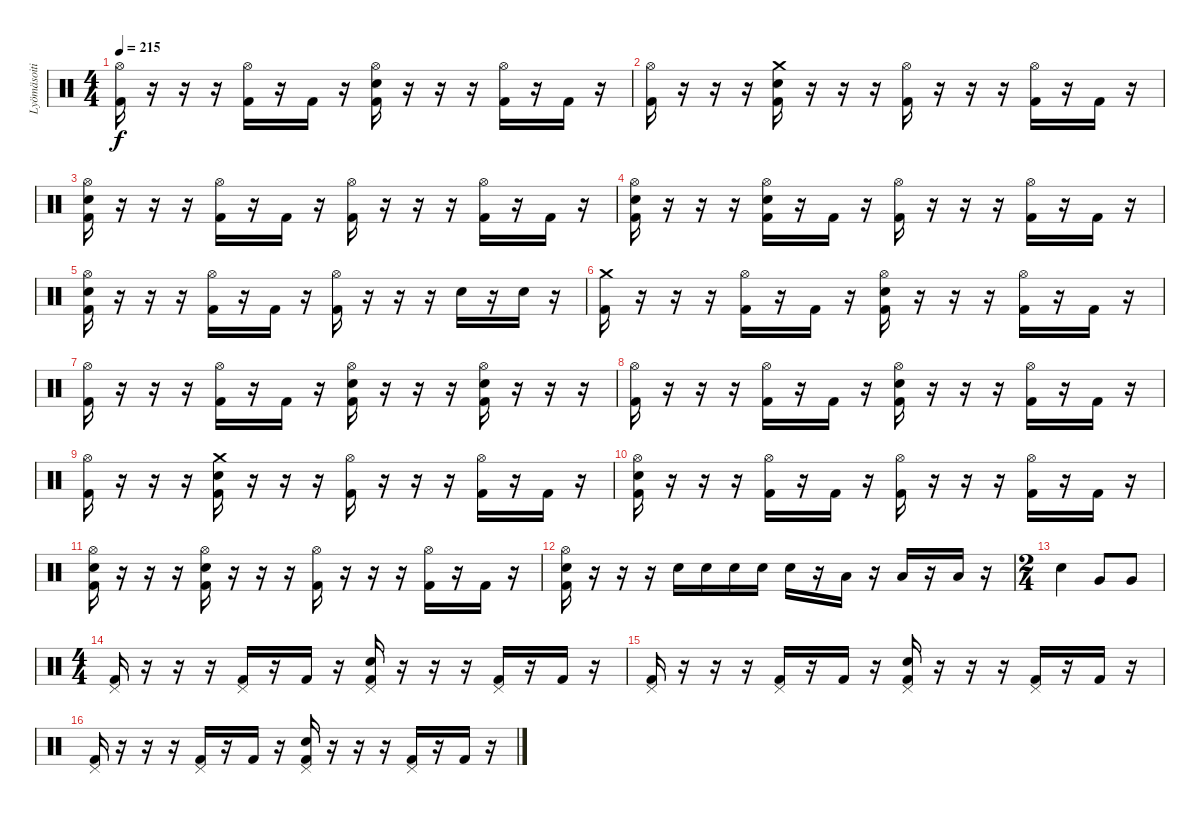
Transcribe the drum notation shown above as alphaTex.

\track ("Lyömäsoitin" "Lyömäsoiti") {instrument percussion}
\staff {score}
\articulation defaults
\ts (4 4)
\tempo 215
\clef neutral
\ks c
("Hi-Hat (open)" "Kick (hit) 2").16{dy f} r.16 r.16 r.16 ("Hi-Hat (open)" "Kick (hit) 2").16 r.16 "Kick (hit) 2".16 r.16 ("Electric Snare (hit)" "Hi-Hat (open)" "Kick (hit) 2").16 r.16 r.16 r.16 ("Hi-Hat (open)" "Kick (hit) 2").16 r.16 "Kick (hit) 2".16 r.16 |
("Hi-Hat (open)" "Kick (hit) 2").16 r.16 r.16 r.16 ("Electric Snare (hit)" "Crash medium (hit)" "Kick (hit) 2").16 r.16 r.16 r.16 ("Hi-Hat (open)" "Kick (hit) 2").16 r.16 r.16 r.16 ("Hi-Hat (open)" "Kick (hit) 2").16 r.16 "Kick (hit) 2".16 r.16 |
("Electric Snare (hit)" "Hi-Hat (open)" "Kick (hit) 2").16 r.16 r.16 r.16 ("Hi-Hat (open)" "Kick (hit) 2").16 r.16 "Kick (hit) 2".16 r.16 ("Hi-Hat (open)" "Kick (hit) 2").16 r.16 r.16 r.16 ("Hi-Hat (open)" "Kick (hit) 2").16 r.16 "Kick (hit) 2".16 r.16 |
("Electric Snare (hit)" "Hi-Hat (open)" "Kick (hit) 2").16 r.16 r.16 r.16 ("Electric Snare (hit)" "Hi-Hat (open)" "Kick (hit) 2").16 r.16 "Kick (hit) 2".16 r.16 ("Hi-Hat (open)" "Kick (hit) 2").16 r.16 r.16 r.16 ("Hi-Hat (open)" "Kick (hit) 2").16 r.16 "Kick (hit) 2".16 r.16 |
("Hi-Hat (open)" "Electric Snare (hit)" "Kick (hit) 2").16 r.16 r.16 r.16 ("Hi-Hat (open)" "Kick (hit) 2").16 r.16 "Kick (hit) 2".16 r.16 ("Hi-Hat (open)" "Kick (hit) 2").16 r.16 r.16 r.16 "Electric Snare (hit)".16 r.16 "Electric Snare (hit)".16 r.16 |
("Crash medium (hit)" "Kick (hit) 2").16 r.16 r.16 r.16 ("Hi-Hat (open)" "Kick (hit) 2").16 r.16 "Kick (hit) 2".16 r.16 ("Electric Snare (hit)" "Hi-Hat (open)" "Kick (hit) 2").16 r.16 r.16 r.16 ("Hi-Hat (open)" "Kick (hit) 2").16 r.16 "Kick (hit) 2".16 r.16 |
("Hi-Hat (open)" "Kick (hit) 2").16 r.16 r.16 r.16 ("Hi-Hat (open)" "Kick (hit) 2").16 r.16 "Kick (hit) 2".16 r.16 ("Electric Snare (hit)" "Hi-Hat (open)" "Kick (hit) 2").16 r.16 r.16 r.16 ("Electric Snare (hit)" "Hi-Hat (open)" "Kick (hit) 2").16 r.16 r.16 r.16 |
("Hi-Hat (open)" "Kick (hit) 2").16 r.16 r.16 r.16 ("Hi-Hat (open)" "Kick (hit) 2").16 r.16 "Kick (hit) 2".16 r.16 ("Electric Snare (hit)" "Hi-Hat (open)" "Kick (hit) 2").16 r.16 r.16 r.16 ("Hi-Hat (open)" "Kick (hit) 2").16 r.16 "Kick (hit) 2".16 r.16 |
("Hi-Hat (open)" "Kick (hit) 2").16 r.16 r.16 r.16 ("Crash medium (hit)" "Electric Snare (hit)" "Kick (hit) 2").16 r.16 r.16 r.16 ("Hi-Hat (open)" "Kick (hit) 2").16 r.16 r.16 r.16 ("Hi-Hat (open)" "Kick (hit) 2").16 r.16 "Kick (hit) 2".16 r.16 |
("Electric Snare (hit)" "Hi-Hat (open)" "Kick (hit) 2").16 r.16 r.16 r.16 ("Hi-Hat (open)" "Kick (hit) 2").16 r.16 "Kick (hit) 2".16 r.16 ("Hi-Hat (open)" "Kick (hit) 2").16 r.16 r.16 r.16 ("Hi-Hat (open)" "Kick (hit) 2").16 r.16 "Kick (hit) 2".16 r.16 |
("Electric Snare (hit)" "Hi-Hat (open)" "Kick (hit) 2").16 r.16 r.16 r.16 ("Electric Snare (hit)" "Hi-Hat (open)" "Kick (hit) 2").16 r.16 r.16 r.16 ("Hi-Hat (open)" "Kick (hit) 2").16 r.16 r.16 r.16 ("Hi-Hat (open)" "Kick (hit) 2").16 r.16 "Kick (hit) 2".16 r.16 |
("Hi-Hat (open)" "Electric Snare (hit)" "Kick (hit) 2").16 r.16 r.16 r.16 "Electric Snare (hit)".16 "Electric Snare (hit)".16 "Electric Snare (hit)".16 "Electric Snare (hit)".16 "Electric Snare (hit)".16 r.16 "Low Tom (hit)".16 r.16 "Low Tom (hit)".16 r.16 "Low Tom (hit)".16 r.16 |
\ts (2 4)
"Electric Snare (hit)".4 "Very Low Tom (hit)".8 "Very Low Tom (hit)".8 |
\ts (4 4)
("Pedal Hi-Hat (hit)" "Kick (hit) 2").16 r.16 r.16 r.16 ("Pedal Hi-Hat (hit)" "Kick (hit) 2").16 r.16 "Kick (hit) 2".16 r.16 ("Electric Snare (hit)" "Pedal Hi-Hat (hit)" "Kick (hit) 2").16 r.16 r.16 r.16 ("Pedal Hi-Hat (hit)" "Kick (hit) 2").16 r.16 "Kick (hit) 2".16 r.16 |
("Pedal Hi-Hat (hit)" "Kick (hit) 2").16 r.16 r.16 r.16 ("Pedal Hi-Hat (hit)" "Kick (hit) 2").16 r.16 "Kick (hit) 2".16 r.16 ("Electric Snare (hit)" "Pedal Hi-Hat (hit)" "Kick (hit) 2").16 r.16 r.16 r.16 ("Pedal Hi-Hat (hit)" "Kick (hit) 2").16 r.16 "Kick (hit) 2".16 r.16 |
("Pedal Hi-Hat (hit)" "Kick (hit) 2").16 r.16 r.16 r.16 ("Pedal Hi-Hat (hit)" "Kick (hit) 2").16 r.16 "Kick (hit) 2".16 r.16 ("Electric Snare (hit)" "Pedal Hi-Hat (hit)" "Kick (hit) 2").16 r.16 r.16 r.16 ("Pedal Hi-Hat (hit)" "Kick (hit) 2").16 r.16 "Kick (hit) 2".16 r.16
